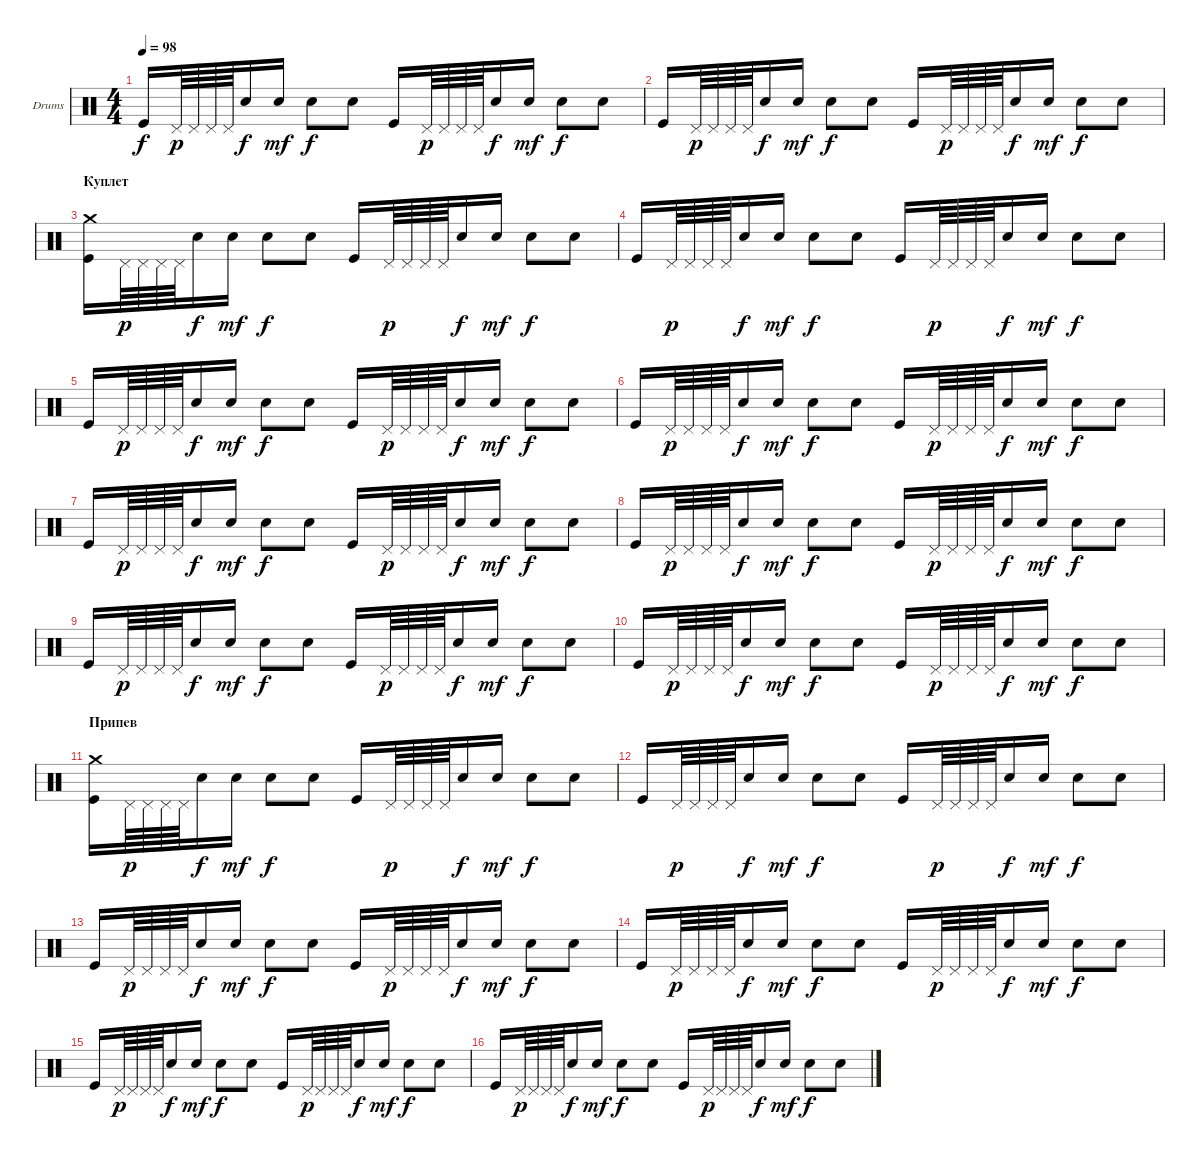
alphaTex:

\defaultSystemsLayout 4
\bracketExtendMode groupsimilarinstruments
\firstSystemTrackNameOrientation horizontal
\otherSystemsTrackNameOrientation horizontal
\track ("Е. Кулаков" "Drums") {instrument percussion}
\staff {score}
\articulation defaults
\ts (4 4)
\tempo 98
\clef neutral
\ks c "Kick (hit)".16{dy f} "Pedal Hi-Hat (hit)".64{dy p} "Pedal Hi-Hat (hit)".64 "Pedal Hi-Hat (hit)".64 "Pedal Hi-Hat (hit)".64 "Snare (hit) 2".16{dy f} "Snare (hit) 2".16{dy mf} "Snare (hit) 2".8{dy f} "Snare (hit) 2".8 "Kick (hit)".16 "Pedal Hi-Hat (hit)".64{dy p} "Pedal Hi-Hat (hit)".64 "Pedal Hi-Hat (hit)".64 "Pedal Hi-Hat (hit)".64 "Snare (hit) 2".16{dy f} "Snare (hit) 2".16{dy mf} "Snare (hit) 2".8{dy f} "Snare (hit) 2".8
|
"Kick (hit)".16 "Pedal Hi-Hat (hit)".64{dy p} "Pedal Hi-Hat (hit)".64 "Pedal Hi-Hat (hit)".64 "Pedal Hi-Hat (hit)".64 "Snare (hit) 2".16{dy f} "Snare (hit) 2".16{dy mf} "Snare (hit) 2".8{dy f} "Snare (hit) 2".8 "Kick (hit)".16 "Pedal Hi-Hat (hit)".64{dy p} "Pedal Hi-Hat (hit)".64 "Pedal Hi-Hat (hit)".64 "Pedal Hi-Hat (hit)".64 "Snare (hit) 2".16{dy f} "Snare (hit) 2".16{dy mf} "Snare (hit) 2".8{dy f} "Snare (hit) 2".8 |
\section ("" "Куплет")
("Kick (hit)" "Crash medium (hit)").16 "Pedal Hi-Hat (hit)".64{dy p} "Pedal Hi-Hat (hit)".64 "Pedal Hi-Hat (hit)".64 "Pedal Hi-Hat (hit)".64 "Snare (hit) 2".16{dy f} "Snare (hit) 2".16{dy mf} "Snare (hit) 2".8{dy f} "Snare (hit) 2".8 "Kick (hit)".16 "Pedal Hi-Hat (hit)".64{dy p} "Pedal Hi-Hat (hit)".64 "Pedal Hi-Hat (hit)".64 "Pedal Hi-Hat (hit)".64 "Snare (hit) 2".16{dy f} "Snare (hit) 2".16{dy mf} "Snare (hit) 2".8{dy f} "Snare (hit) 2".8 |
"Kick (hit)".16 "Pedal Hi-Hat (hit)".64{dy p} "Pedal Hi-Hat (hit)".64 "Pedal Hi-Hat (hit)".64 "Pedal Hi-Hat (hit)".64 "Snare (hit) 2".16{dy f} "Snare (hit) 2".16{dy mf} "Snare (hit) 2".8{dy f} "Snare (hit) 2".8 "Kick (hit)".16 "Pedal Hi-Hat (hit)".64{dy p} "Pedal Hi-Hat (hit)".64 "Pedal Hi-Hat (hit)".64 "Pedal Hi-Hat (hit)".64 "Snare (hit) 2".16{dy f} "Snare (hit) 2".16{dy mf} "Snare (hit) 2".8{dy f} "Snare (hit) 2".8 |
"Kick (hit)".16 "Pedal Hi-Hat (hit)".64{dy p} "Pedal Hi-Hat (hit)".64 "Pedal Hi-Hat (hit)".64 "Pedal Hi-Hat (hit)".64 "Snare (hit) 2".16{dy f} "Snare (hit) 2".16{dy mf} "Snare (hit) 2".8{dy f} "Snare (hit) 2".8 "Kick (hit)".16 "Pedal Hi-Hat (hit)".64{dy p} "Pedal Hi-Hat (hit)".64 "Pedal Hi-Hat (hit)".64 "Pedal Hi-Hat (hit)".64 "Snare (hit) 2".16{dy f} "Snare (hit) 2".16{dy mf} "Snare (hit) 2".8{dy f} "Snare (hit) 2".8 |
"Kick (hit)".16 "Pedal Hi-Hat (hit)".64{dy p} "Pedal Hi-Hat (hit)".64 "Pedal Hi-Hat (hit)".64 "Pedal Hi-Hat (hit)".64 "Snare (hit) 2".16{dy f} "Snare (hit) 2".16{dy mf} "Snare (hit) 2".8{dy f} "Snare (hit) 2".8 "Kick (hit)".16 "Pedal Hi-Hat (hit)".64{dy p} "Pedal Hi-Hat (hit)".64 "Pedal Hi-Hat (hit)".64 "Pedal Hi-Hat (hit)".64 "Snare (hit) 2".16{dy f} "Snare (hit) 2".16{dy mf} "Snare (hit) 2".8{dy f} "Snare (hit) 2".8 |
"Kick (hit)".16 "Pedal Hi-Hat (hit)".64{dy p} "Pedal Hi-Hat (hit)".64 "Pedal Hi-Hat (hit)".64 "Pedal Hi-Hat (hit)".64 "Snare (hit) 2".16{dy f} "Snare (hit) 2".16{dy mf} "Snare (hit) 2".8{dy f} "Snare (hit) 2".8 "Kick (hit)".16 "Pedal Hi-Hat (hit)".64{dy p} "Pedal Hi-Hat (hit)".64 "Pedal Hi-Hat (hit)".64 "Pedal Hi-Hat (hit)".64 "Snare (hit) 2".16{dy f} "Snare (hit) 2".16{dy mf} "Snare (hit) 2".8{dy f} "Snare (hit) 2".8 |
"Kick (hit)".16 "Pedal Hi-Hat (hit)".64{dy p} "Pedal Hi-Hat (hit)".64 "Pedal Hi-Hat (hit)".64 "Pedal Hi-Hat (hit)".64 "Snare (hit) 2".16{dy f} "Snare (hit) 2".16{dy mf} "Snare (hit) 2".8{dy f} "Snare (hit) 2".8 "Kick (hit)".16 "Pedal Hi-Hat (hit)".64{dy p} "Pedal Hi-Hat (hit)".64 "Pedal Hi-Hat (hit)".64 "Pedal Hi-Hat (hit)".64 "Snare (hit) 2".16{dy f} "Snare (hit) 2".16{dy mf} "Snare (hit) 2".8{dy f} "Snare (hit) 2".8 |
"Kick (hit)".16 "Pedal Hi-Hat (hit)".64{dy p} "Pedal Hi-Hat (hit)".64 "Pedal Hi-Hat (hit)".64 "Pedal Hi-Hat (hit)".64 "Snare (hit) 2".16{dy f} "Snare (hit) 2".16{dy mf} "Snare (hit) 2".8{dy f} "Snare (hit) 2".8 "Kick (hit)".16 "Pedal Hi-Hat (hit)".64{dy p} "Pedal Hi-Hat (hit)".64 "Pedal Hi-Hat (hit)".64 "Pedal Hi-Hat (hit)".64 "Snare (hit) 2".16{dy f} "Snare (hit) 2".16{dy mf} "Snare (hit) 2".8{dy f} "Snare (hit) 2".8 |
"Kick (hit)".16 "Pedal Hi-Hat (hit)".64{dy p} "Pedal Hi-Hat (hit)".64 "Pedal Hi-Hat (hit)".64 "Pedal Hi-Hat (hit)".64 "Snare (hit) 2".16{dy f} "Snare (hit) 2".16{dy mf} "Snare (hit) 2".8{dy f} "Snare (hit) 2".8 "Kick (hit)".16 "Pedal Hi-Hat (hit)".64{dy p} "Pedal Hi-Hat (hit)".64 "Pedal Hi-Hat (hit)".64 "Pedal Hi-Hat (hit)".64 "Snare (hit) 2".16{dy f} "Snare (hit) 2".16{dy mf} "Snare (hit) 2".8{dy f} "Snare (hit) 2".8 |
\section ("" "Припев")
("Kick (hit)" "Crash medium (hit)").16 "Pedal Hi-Hat (hit)".64{dy p} "Pedal Hi-Hat (hit)".64 "Pedal Hi-Hat (hit)".64 "Pedal Hi-Hat (hit)".64 "Snare (hit) 2".16{dy f} "Snare (hit) 2".16{dy mf} "Snare (hit) 2".8{dy f} "Snare (hit) 2".8 "Kick (hit)".16 "Pedal Hi-Hat (hit)".64{dy p} "Pedal Hi-Hat (hit)".64 "Pedal Hi-Hat (hit)".64 "Pedal Hi-Hat (hit)".64 "Snare (hit) 2".16{dy f} "Snare (hit) 2".16{dy mf} "Snare (hit) 2".8{dy f} "Snare (hit) 2".8 |
"Kick (hit)".16 "Pedal Hi-Hat (hit)".64{dy p} "Pedal Hi-Hat (hit)".64 "Pedal Hi-Hat (hit)".64 "Pedal Hi-Hat (hit)".64 "Snare (hit) 2".16{dy f} "Snare (hit) 2".16{dy mf} "Snare (hit) 2".8{dy f} "Snare (hit) 2".8 "Kick (hit)".16 "Pedal Hi-Hat (hit)".64{dy p} "Pedal Hi-Hat (hit)".64 "Pedal Hi-Hat (hit)".64 "Pedal Hi-Hat (hit)".64 "Snare (hit) 2".16{dy f} "Snare (hit) 2".16{dy mf} "Snare (hit) 2".8{dy f} "Snare (hit) 2".8 |
"Kick (hit)".16 "Pedal Hi-Hat (hit)".64{dy p} "Pedal Hi-Hat (hit)".64 "Pedal Hi-Hat (hit)".64 "Pedal Hi-Hat (hit)".64 "Snare (hit) 2".16{dy f} "Snare (hit) 2".16{dy mf} "Snare (hit) 2".8{dy f} "Snare (hit) 2".8 "Kick (hit)".16 "Pedal Hi-Hat (hit)".64{dy p} "Pedal Hi-Hat (hit)".64 "Pedal Hi-Hat (hit)".64 "Pedal Hi-Hat (hit)".64 "Snare (hit) 2".16{dy f} "Snare (hit) 2".16{dy mf} "Snare (hit) 2".8{dy f} "Snare (hit) 2".8 |
"Kick (hit)".16 "Pedal Hi-Hat (hit)".64{dy p} "Pedal Hi-Hat (hit)".64 "Pedal Hi-Hat (hit)".64 "Pedal Hi-Hat (hit)".64 "Snare (hit) 2".16{dy f} "Snare (hit) 2".16{dy mf} "Snare (hit) 2".8{dy f} "Snare (hit) 2".8 "Kick (hit)".16 "Pedal Hi-Hat (hit)".64{dy p} "Pedal Hi-Hat (hit)".64 "Pedal Hi-Hat (hit)".64 "Pedal Hi-Hat (hit)".64 "Snare (hit) 2".16{dy f} "Snare (hit) 2".16{dy mf} "Snare (hit) 2".8{dy f} "Snare (hit) 2".8 |
"Kick (hit)".16 "Pedal Hi-Hat (hit)".64{dy p} "Pedal Hi-Hat (hit)".64 "Pedal Hi-Hat (hit)".64 "Pedal Hi-Hat (hit)".64 "Snare (hit) 2".16{dy f} "Snare (hit) 2".16{dy mf} "Snare (hit) 2".8{dy f} "Snare (hit) 2".8 "Kick (hit)".16 "Pedal Hi-Hat (hit)".64{dy p} "Pedal Hi-Hat (hit)".64 "Pedal Hi-Hat (hit)".64 "Pedal Hi-Hat (hit)".64 "Snare (hit) 2".16{dy f} "Snare (hit) 2".16{dy mf} "Snare (hit) 2".8{dy f} "Snare (hit) 2".8 |
"Kick (hit)".16 "Pedal Hi-Hat (hit)".64{dy p} "Pedal Hi-Hat (hit)".64 "Pedal Hi-Hat (hit)".64 "Pedal Hi-Hat (hit)".64 "Snare (hit) 2".16{dy f} "Snare (hit) 2".16{dy mf} "Snare (hit) 2".8{dy f} "Snare (hit) 2".8 "Kick (hit)".16 "Pedal Hi-Hat (hit)".64{dy p} "Pedal Hi-Hat (hit)".64 "Pedal Hi-Hat (hit)".64 "Pedal Hi-Hat (hit)".64 "Snare (hit) 2".16{dy f} "Snare (hit) 2".16{dy mf} "Snare (hit) 2".8{dy f} "Snare (hit) 2".8
